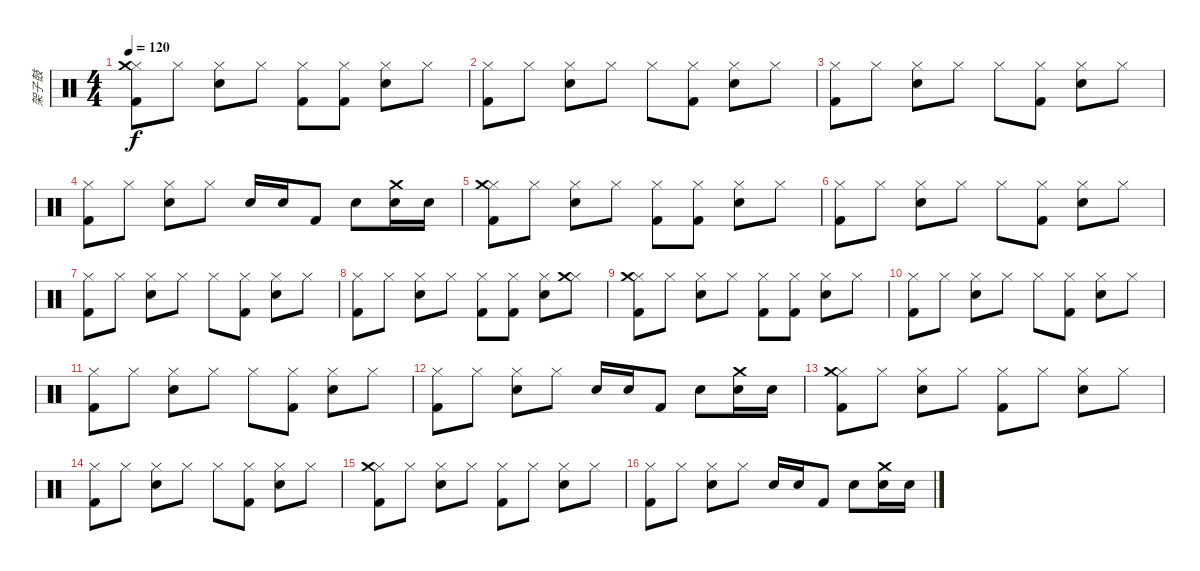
\track ("架子鼓" "架子鼓") {instrument percussion}
\staff {score}
\articulation defaults
\ts (4 4)
\tempo 120
\clef neutral
\ks c
("Hi-Hat (closed)" "Kick (hit) 2" "Crash medium (hit)").8{dy f} "Hi-Hat (closed)".8 ("Hi-Hat (closed)" "Snare (hit) 2").8 "Hi-Hat (closed)".8 ("Hi-Hat (closed)" "Kick (hit) 2").8 ("Hi-Hat (closed)" "Kick (hit) 2").8 ("Hi-Hat (closed)" "Snare (hit) 2").8 "Hi-Hat (closed)".8 |
("Hi-Hat (closed)" "Kick (hit) 2").8 "Hi-Hat (closed)".8 ("Hi-Hat (closed)" "Snare (hit) 2").8 "Hi-Hat (closed)".8 "Hi-Hat (closed)".8 ("Hi-Hat (closed)" "Kick (hit) 2").8 ("Hi-Hat (closed)" "Snare (hit) 2").8 "Hi-Hat (closed)".8 |
("Hi-Hat (closed)" "Kick (hit) 2").8 "Hi-Hat (closed)".8 ("Hi-Hat (closed)" "Snare (hit) 2").8 "Hi-Hat (closed)".8 "Hi-Hat (closed)".8 ("Hi-Hat (closed)" "Kick (hit) 2").8 ("Hi-Hat (closed)" "Snare (hit) 2").8 "Hi-Hat (closed)".8 |
("Hi-Hat (closed)" "Kick (hit) 2").8 "Hi-Hat (closed)".8 ("Hi-Hat (closed)" "Snare (hit) 2").8 "Hi-Hat (closed)".8 "Snare (hit) 2".16 "Snare (hit) 2".16 "Kick (hit) 2".8 "Snare (hit) 2".8 ("Crash medium (hit)" "Snare (hit) 2").16 "Snare (hit) 2".16 |
("Hi-Hat (closed)" "Kick (hit) 2" "Crash medium (hit)").8 "Hi-Hat (closed)".8 ("Hi-Hat (closed)" "Snare (hit) 2").8 "Hi-Hat (closed)".8 ("Hi-Hat (closed)" "Kick (hit) 2").8 ("Hi-Hat (closed)" "Kick (hit) 2").8 ("Hi-Hat (closed)" "Snare (hit) 2").8 "Hi-Hat (closed)".8 |
("Hi-Hat (closed)" "Kick (hit) 2").8 "Hi-Hat (closed)".8 ("Hi-Hat (closed)" "Snare (hit) 2").8 "Hi-Hat (closed)".8 "Hi-Hat (closed)".8 ("Hi-Hat (closed)" "Kick (hit) 2").8 ("Hi-Hat (closed)" "Snare (hit) 2").8 "Hi-Hat (closed)".8 |
("Hi-Hat (closed)" "Kick (hit) 2").8 "Hi-Hat (closed)".8 ("Hi-Hat (closed)" "Snare (hit) 2").8 "Hi-Hat (closed)".8 "Hi-Hat (closed)".8 ("Hi-Hat (closed)" "Kick (hit) 2").8 ("Hi-Hat (closed)" "Snare (hit) 2").8 "Hi-Hat (closed)".8 |
("Hi-Hat (closed)" "Kick (hit) 2").8 "Hi-Hat (closed)".8 ("Hi-Hat (closed)" "Snare (hit) 2").8 "Hi-Hat (closed)".8 ("Hi-Hat (closed)" "Kick (hit) 2").8 ("Hi-Hat (closed)" "Kick (hit) 2").8 ("Hi-Hat (closed)" "Snare (hit) 2").8 ("Hi-Hat (closed)" "Crash medium (hit)").8 |
("Hi-Hat (closed)" "Kick (hit) 2" "Crash medium (hit)").8 "Hi-Hat (closed)".8 ("Hi-Hat (closed)" "Snare (hit) 2").8 "Hi-Hat (closed)".8 ("Hi-Hat (closed)" "Kick (hit) 2").8 ("Hi-Hat (closed)" "Kick (hit) 2").8 ("Hi-Hat (closed)" "Snare (hit) 2").8 "Hi-Hat (closed)".8 |
("Hi-Hat (closed)" "Kick (hit) 2").8 "Hi-Hat (closed)".8 ("Hi-Hat (closed)" "Snare (hit) 2").8 "Hi-Hat (closed)".8 "Hi-Hat (closed)".8 ("Hi-Hat (closed)" "Kick (hit) 2").8 ("Hi-Hat (closed)" "Snare (hit) 2").8 "Hi-Hat (closed)".8 |
("Hi-Hat (closed)" "Kick (hit) 2").8 "Hi-Hat (closed)".8 ("Hi-Hat (closed)" "Snare (hit) 2").8 "Hi-Hat (closed)".8 "Hi-Hat (closed)".8 ("Hi-Hat (closed)" "Kick (hit) 2").8 ("Hi-Hat (closed)" "Snare (hit) 2").8 "Hi-Hat (closed)".8 |
("Hi-Hat (closed)" "Kick (hit) 2").8 "Hi-Hat (closed)".8 ("Hi-Hat (closed)" "Snare (hit) 2").8 "Hi-Hat (closed)".8 "Snare (hit) 2".16 "Snare (hit) 2".16 "Kick (hit) 2".8 "Snare (hit) 2".8 ("Crash medium (hit)" "Snare (hit) 2").16 "Snare (hit) 2".16 |
("Hi-Hat (closed)" "Kick (hit) 2" "Crash medium (hit)").8 "Hi-Hat (closed)".8 ("Hi-Hat (closed)" "Snare (hit) 2").8 "Hi-Hat (closed)".8 ("Hi-Hat (closed)" "Kick (hit) 2").8 "Hi-Hat (closed)".8 ("Hi-Hat (closed)" "Snare (hit) 2").8 "Hi-Hat (closed)".8 |
("Hi-Hat (closed)" "Kick (hit) 2").8 "Hi-Hat (closed)".8 ("Hi-Hat (closed)" "Snare (hit) 2").8 "Hi-Hat (closed)".8 "Hi-Hat (closed)".8 ("Hi-Hat (closed)" "Kick (hit) 2").8 ("Hi-Hat (closed)" "Snare (hit) 2").8 "Hi-Hat (closed)".8 |
("Hi-Hat (closed)" "Kick (hit) 2" "Crash medium (hit)").8 "Hi-Hat (closed)".8 ("Hi-Hat (closed)" "Snare (hit) 2").8 "Hi-Hat (closed)".8 ("Hi-Hat (closed)" "Kick (hit) 2").8 "Hi-Hat (closed)".8 ("Hi-Hat (closed)" "Snare (hit) 2").8 "Hi-Hat (closed)".8 |
("Hi-Hat (closed)" "Kick (hit) 2").8 "Hi-Hat (closed)".8 ("Hi-Hat (closed)" "Snare (hit) 2").8 "Hi-Hat (closed)".8 "Snare (hit) 2".16 "Snare (hit) 2".16 "Kick (hit) 2".8 "Snare (hit) 2".8 ("Crash medium (hit)" "Snare (hit) 2").16 "Snare (hit) 2".16
